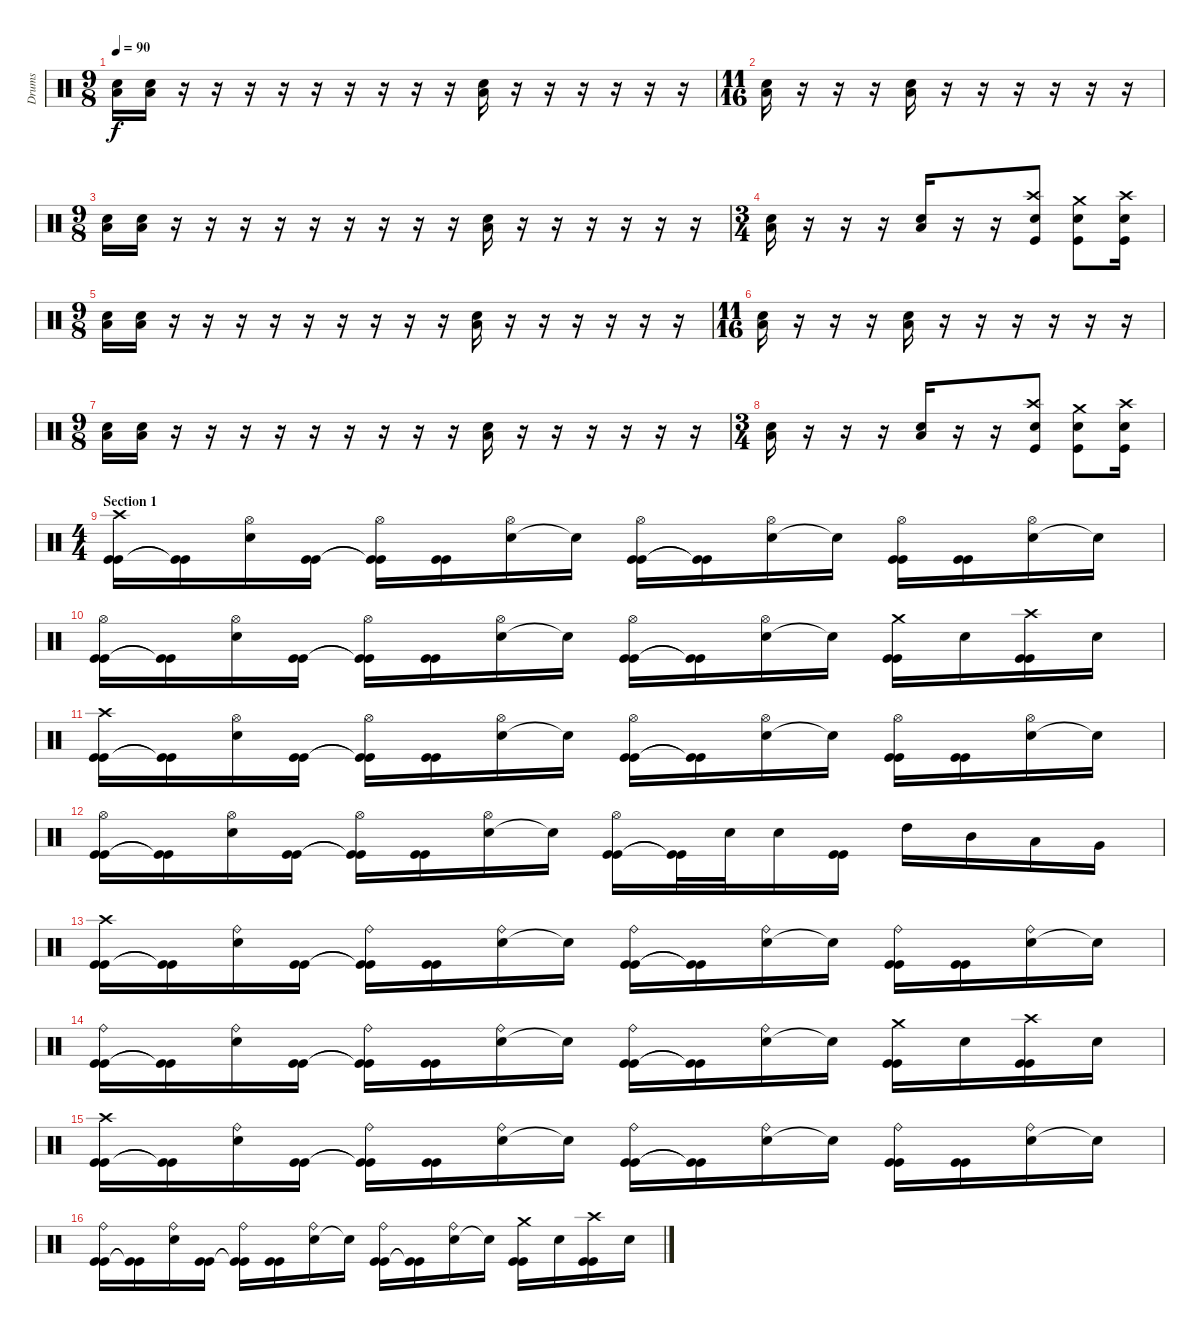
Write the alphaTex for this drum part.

\track ("Drums" "Drums") {instrument percussion}
\staff {score}
\articulation defaults
\ts (9 8)
\tempo 90
\clef neutral
\ks c
("Snare (hit) 2" "Low Floor Tom (hit)").16{dy f} ("Snare (hit) 2" "Low Floor Tom (hit)").16 r.16 r.16 r.16 r.16 r.16 r.16 r.16 r.16 r.16 ("Snare (hit) 2" "Low Floor Tom (hit)").16 r.16 r.16 r.16 r.16 r.16 r.16 |
\ts (11 16)
("Snare (hit) 2" "Low Floor Tom (hit)").16 r.16 r.16 r.16 ("Snare (hit) 2" "Low Floor Tom (hit)").16 r.16 r.16 r.16 r.16 r.16 r.16 |
\ts (9 8)
("Snare (hit) 2" "Low Floor Tom (hit)").16 ("Snare (hit) 2" "Low Floor Tom (hit)").16 r.16 r.16 r.16 r.16 r.16 r.16 r.16 r.16 r.16 ("Snare (hit) 2" "Low Floor Tom (hit)").16 r.16 r.16 r.16 r.16 r.16 r.16 |
\ts (3 4)
("Low Floor Tom (hit)" "Snare (hit) 2").16 r.16 r.16 r.16 ("Low Floor Tom (hit)" "Snare (hit) 2").16 r.16 r.16 ("Crash high (hit)" "Snare (hit) 2" "Kick (hit)").8 ("Crash medium (hit)" "Snare (hit) 2" "Kick (hit)").8 ("Crash high (hit)" "Snare (hit) 2" "Kick (hit)").16 |
\ts (9 8)
("Snare (hit) 2" "Low Floor Tom (hit)").16 ("Snare (hit) 2" "Low Floor Tom (hit)").16 r.16 r.16 r.16 r.16 r.16 r.16 r.16 r.16 r.16 ("Snare (hit) 2" "Low Floor Tom (hit)").16 r.16 r.16 r.16 r.16 r.16 r.16 |
\ts (11 16)
("Snare (hit) 2" "Low Floor Tom (hit)").16 r.16 r.16 r.16 ("Snare (hit) 2" "Low Floor Tom (hit)").16 r.16 r.16 r.16 r.16 r.16 r.16 |
\ts (9 8)
("Snare (hit) 2" "Low Floor Tom (hit)").16 ("Snare (hit) 2" "Low Floor Tom (hit)").16 r.16 r.16 r.16 r.16 r.16 r.16 r.16 r.16 r.16 ("Snare (hit) 2" "Low Floor Tom (hit)").16 r.16 r.16 r.16 r.16 r.16 r.16 |
\ts (3 4)
("Low Floor Tom (hit)" "Snare (hit) 2").16 r.16 r.16 r.16 ("Low Floor Tom (hit)" "Snare (hit) 2").16 r.16 r.16 ("Crash high (hit)" "Snare (hit) 2" "Kick (hit)").8 ("Crash medium (hit)" "Snare (hit) 2" "Kick (hit)").8 ("Crash high (hit)" "Snare (hit) 2" "Kick (hit)").16 |
\ts (4 4)
\section ("" "Section 1")
("Kick (hit)" "Kick (hit)" "Crash high (hit)").16 ("Kick (hit)"{t} "Kick (hit)"{t}).16 ("Snare (hit) 2" "Hi-Hat (open)").16 ("Kick (hit)" "Kick (hit)").16 ("Kick (hit)"{t} "Kick (hit)"{t} "Hi-Hat (open)").16 ("Kick (hit)" "Kick (hit)").16 ("Snare (hit) 2" "Hi-Hat (open)").16 "Snare (hit) 2"{t}.16 ("Kick (hit)" "Kick (hit)" "Hi-Hat (open)").16 ("Kick (hit)"{t} "Kick (hit)"{t}).16 ("Snare (hit) 2" "Hi-Hat (open)").16 "Snare (hit) 2"{t}.16 ("Kick (hit)" "Kick (hit)" "Hi-Hat (open)").16 ("Kick (hit)" "Kick (hit)").16 ("Snare (hit) 2" "Hi-Hat (open)").16 "Snare (hit) 2"{t}.16 |
("Kick (hit)" "Kick (hit)" "Hi-Hat (open)").16 ("Kick (hit)"{t} "Kick (hit)"{t}).16 ("Snare (hit) 2" "Hi-Hat (open)").16 ("Kick (hit)" "Kick (hit)").16 ("Kick (hit)"{t} "Kick (hit)"{t} "Hi-Hat (open)").16 ("Kick (hit)" "Kick (hit)").16 ("Snare (hit) 2" "Hi-Hat (open)").16 "Snare (hit) 2"{t}.16 ("Kick (hit)" "Kick (hit)" "Hi-Hat (open)").16 ("Kick (hit)"{t} "Kick (hit)"{t}).16 ("Snare (hit) 2" "Hi-Hat (open)").16 "Snare (hit) 2"{t}.16 ("Kick (hit)" "Kick (hit)" "Crash medium (hit)").16 "Snare (hit) 2".16 ("Kick (hit)" "Kick (hit)" "Crash high (hit)").16 "Snare (hit) 2".16 |
("Kick (hit)" "Kick (hit)" "Crash high (hit)").16 ("Kick (hit)"{t} "Kick (hit)"{t}).16 ("Snare (hit) 2" "Hi-Hat (open)").16 ("Kick (hit)" "Kick (hit)").16 ("Kick (hit)"{t} "Kick (hit)"{t} "Hi-Hat (open)").16 ("Kick (hit)" "Kick (hit)").16 ("Snare (hit) 2" "Hi-Hat (open)").16 "Snare (hit) 2"{t}.16 ("Kick (hit)" "Kick (hit)" "Hi-Hat (open)").16 ("Kick (hit)"{t} "Kick (hit)"{t}).16 ("Snare (hit) 2" "Hi-Hat (open)").16 "Snare (hit) 2"{t}.16 ("Kick (hit)" "Kick (hit)" "Hi-Hat (open)").16 ("Kick (hit)" "Kick (hit)").16 ("Snare (hit) 2" "Hi-Hat (open)").16 "Snare (hit) 2"{t}.16 |
("Kick (hit)" "Kick (hit)" "Hi-Hat (open)").16 ("Kick (hit)"{t} "Kick (hit)"{t}).16 ("Snare (hit) 2" "Hi-Hat (open)").16 ("Kick (hit)" "Kick (hit)").16 ("Kick (hit)"{t} "Kick (hit)"{t} "Hi-Hat (open)").16 ("Kick (hit)" "Kick (hit)").16 ("Snare (hit) 2" "Hi-Hat (open)").16 "Snare (hit) 2"{t}.16 ("Kick (hit)" "Kick (hit)" "Hi-Hat (open)").16 ("Kick (hit)"{t} "Kick (hit)"{t}).32 "Snare (hit) 2".32 "Snare (hit) 2".16 ("Kick (hit)" "Kick (hit)").16 "High Tom (hit)".16 "Mid Tom (hit)".16 "Low Tom (hit)".16 "Very Low Tom (hit)".16 |
("Kick (hit)" "Kick (hit)" "Crash high (hit)").16 ("Kick (hit)"{t} "Kick (hit)"{t}).16 ("Snare (hit) 2" "Ride (bell)").16 ("Kick (hit)" "Kick (hit)").16 ("Kick (hit)"{t} "Kick (hit)"{t} "Ride (bell)").16 ("Kick (hit)" "Kick (hit)").16 ("Snare (hit) 2" "Ride (bell)").16 "Snare (hit) 2"{t}.16 ("Kick (hit)" "Kick (hit)" "Ride (bell)").16 ("Kick (hit)"{t} "Kick (hit)"{t}).16 ("Snare (hit) 2" "Ride (bell)").16 "Snare (hit) 2"{t}.16 ("Kick (hit)" "Kick (hit)" "Ride (bell)").16 ("Kick (hit)" "Kick (hit)").16 ("Snare (hit) 2" "Ride (bell)").16 "Snare (hit) 2"{t}.16 |
("Kick (hit)" "Kick (hit)" "Ride (bell)").16 ("Kick (hit)"{t} "Kick (hit)"{t}).16 ("Snare (hit) 2" "Ride (bell)").16 ("Kick (hit)" "Kick (hit)").16 ("Kick (hit)"{t} "Kick (hit)"{t} "Ride (bell)").16 ("Kick (hit)" "Kick (hit)").16 ("Snare (hit) 2" "Ride (bell)").16 "Snare (hit) 2"{t}.16 ("Kick (hit)" "Kick (hit)" "Ride (bell)").16 ("Kick (hit)"{t} "Kick (hit)"{t}).16 ("Snare (hit) 2" "Ride (bell)").16 "Snare (hit) 2"{t}.16 ("Kick (hit)" "Kick (hit)" "Crash medium (hit)").16 "Snare (hit) 2".16 ("Kick (hit)" "Kick (hit)" "Crash high (hit)").16 "Snare (hit) 2".16 |
("Kick (hit)" "Kick (hit)" "Crash high (hit)").16 ("Kick (hit)"{t} "Kick (hit)"{t}).16 ("Snare (hit) 2" "Ride (bell)").16 ("Kick (hit)" "Kick (hit)").16 ("Kick (hit)"{t} "Kick (hit)"{t} "Ride (bell)").16 ("Kick (hit)" "Kick (hit)").16 ("Snare (hit) 2" "Ride (bell)").16 "Snare (hit) 2"{t}.16 ("Kick (hit)" "Kick (hit)" "Ride (bell)").16 ("Kick (hit)"{t} "Kick (hit)"{t}).16 ("Snare (hit) 2" "Ride (bell)").16 "Snare (hit) 2"{t}.16 ("Kick (hit)" "Kick (hit)" "Ride (bell)").16 ("Kick (hit)" "Kick (hit)").16 ("Snare (hit) 2" "Ride (bell)").16 "Snare (hit) 2"{t}.16 |
("Kick (hit)" "Kick (hit)" "Ride (bell)").16 ("Kick (hit)"{t} "Kick (hit)"{t}).16 ("Snare (hit) 2" "Ride (bell)").16 ("Kick (hit)" "Kick (hit)").16 ("Kick (hit)"{t} "Kick (hit)"{t} "Ride (bell)").16 ("Kick (hit)" "Kick (hit)").16 ("Snare (hit) 2" "Ride (bell)").16 "Snare (hit) 2"{t}.16 ("Kick (hit)" "Kick (hit)" "Ride (bell)").16 ("Kick (hit)"{t} "Kick (hit)"{t}).16 ("Snare (hit) 2" "Ride (bell)").16 "Snare (hit) 2"{t}.16 ("Kick (hit)" "Kick (hit)" "Crash medium (hit)").16 "Snare (hit) 2".16 ("Kick (hit)" "Kick (hit)" "Crash high (hit)").16 "Snare (hit) 2".16
